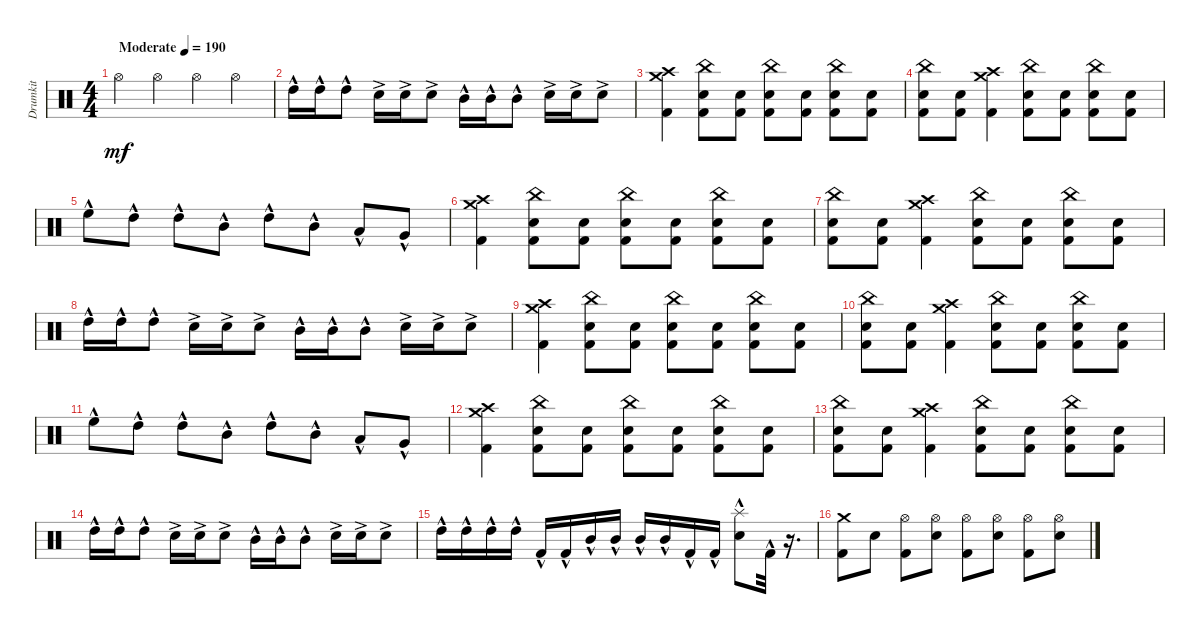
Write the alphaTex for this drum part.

\track ("Drumkit" "Drumkit") {instrument percussion}
\staff {score}
\articulation defaults
\ts (4 4)
\tempo (190 "Moderate")
\clef neutral
\ks c "Hi-Hat (open)".4{dy mf} "Hi-Hat (open)".4 "Hi-Hat (open)".4 "Hi-Hat (open)".4
|
"High Tom (hit)"{hac}.16 "High Tom (hit)"{hac}.16 "High Tom (hit)"{hac}.8 "Snare (hit) 2"{ac}.16 "Snare (hit) 2"{ac}.16 "Snare (hit) 2"{ac}.8 "Mid Tom (hit)"{hac}.16 "Mid Tom (hit)"{hac}.16 "Mid Tom (hit)"{hac}.8 "Snare (hit) 2"{ac}.16 "Snare (hit) 2"{ac}.16 "Snare (hit) 2"{ac}.8 |
("Crash high (hit)" "Crash medium (hit)" "Kick (hit) 2").4 ("China (hit)" "Snare (hit) 2" "Kick (hit) 2").8 ("Snare (hit) 2" "Kick (hit) 2").8 ("China (hit)" "Snare (hit) 2" "Kick (hit) 2").8 ("Snare (hit) 2" "Kick (hit) 2").8 ("China (hit)" "Snare (hit) 2" "Kick (hit) 2").8 ("Snare (hit) 2" "Kick (hit) 2").8 |
("China (hit)" "Snare (hit) 2" "Kick (hit) 2").8 ("Snare (hit) 2" "Kick (hit) 2").8 ("Crash high (hit)" "Crash medium (hit)" "Kick (hit) 2").4 ("China (hit)" "Snare (hit) 2" "Kick (hit) 2").8 ("Snare (hit) 2" "Kick (hit) 2").8 ("China (hit)" "Snare (hit) 2" "Kick (hit) 2").8 ("Snare (hit) 2" "Kick (hit) 2").8 |
"High Floor Tom (hit)"{hac}.8 "High Tom (hit)"{hac}.8 "High Tom (hit)"{hac}.8 "Mid Tom (hit)"{hac}.8 "High Tom (hit)"{hac}.8 "Mid Tom (hit)"{hac}.8 "Low Tom (hit)"{hac}.8 "Very Low Tom (hit)"{hac}.8 |
("Crash high (hit)" "Crash medium (hit)" "Kick (hit) 2").4 ("China (hit)" "Snare (hit) 2" "Kick (hit) 2").8 ("Snare (hit) 2" "Kick (hit) 2").8 ("China (hit)" "Snare (hit) 2" "Kick (hit) 2").8 ("Snare (hit) 2" "Kick (hit) 2").8 ("China (hit)" "Snare (hit) 2" "Kick (hit) 2").8 ("Snare (hit) 2" "Kick (hit) 2").8 |
("China (hit)" "Snare (hit) 2" "Kick (hit) 2").8 ("Snare (hit) 2" "Kick (hit) 2").8 ("Crash high (hit)" "Crash medium (hit)" "Kick (hit) 2").4 ("China (hit)" "Snare (hit) 2" "Kick (hit) 2").8 ("Snare (hit) 2" "Kick (hit) 2").8 ("China (hit)" "Snare (hit) 2" "Kick (hit) 2").8 ("Snare (hit) 2" "Kick (hit) 2").8 |
"High Tom (hit)"{hac}.16 "High Tom (hit)"{hac}.16 "High Tom (hit)"{hac}.8 "Snare (hit) 2"{ac}.16 "Snare (hit) 2"{ac}.16 "Snare (hit) 2"{ac}.8 "Mid Tom (hit)"{hac}.16 "Mid Tom (hit)"{hac}.16 "Mid Tom (hit)"{hac}.8 "Snare (hit) 2"{ac}.16 "Snare (hit) 2"{ac}.16 "Snare (hit) 2"{ac}.8 |
("Crash high (hit)" "Crash medium (hit)" "Kick (hit) 2").4 ("China (hit)" "Snare (hit) 2" "Kick (hit) 2").8 ("Snare (hit) 2" "Kick (hit) 2").8 ("China (hit)" "Snare (hit) 2" "Kick (hit) 2").8 ("Snare (hit) 2" "Kick (hit) 2").8 ("China (hit)" "Snare (hit) 2" "Kick (hit) 2").8 ("Snare (hit) 2" "Kick (hit) 2").8 |
("China (hit)" "Snare (hit) 2" "Kick (hit) 2").8 ("Snare (hit) 2" "Kick (hit) 2").8 ("Crash high (hit)" "Crash medium (hit)" "Kick (hit) 2").4 ("China (hit)" "Snare (hit) 2" "Kick (hit) 2").8 ("Snare (hit) 2" "Kick (hit) 2").8 ("China (hit)" "Snare (hit) 2" "Kick (hit) 2").8 ("Snare (hit) 2" "Kick (hit) 2").8 |
"High Floor Tom (hit)"{hac}.8 "High Tom (hit)"{hac}.8 "High Tom (hit)"{hac}.8 "Mid Tom (hit)"{hac}.8 "High Tom (hit)"{hac}.8 "Mid Tom (hit)"{hac}.8 "Low Tom (hit)"{hac}.8 "Very Low Tom (hit)"{hac}.8 |
("Crash high (hit)" "Crash medium (hit)" "Kick (hit) 2").4 ("China (hit)" "Snare (hit) 2" "Kick (hit) 2").8 ("Snare (hit) 2" "Kick (hit) 2").8 ("China (hit)" "Snare (hit) 2" "Kick (hit) 2").8 ("Snare (hit) 2" "Kick (hit) 2").8 ("China (hit)" "Snare (hit) 2" "Kick (hit) 2").8 ("Snare (hit) 2" "Kick (hit) 2").8 |
("China (hit)" "Snare (hit) 2" "Kick (hit) 2").8 ("Snare (hit) 2" "Kick (hit) 2").8 ("Crash high (hit)" "Crash medium (hit)" "Kick (hit) 2").4 ("China (hit)" "Snare (hit) 2" "Kick (hit) 2").8 ("Snare (hit) 2" "Kick (hit) 2").8 ("China (hit)" "Snare (hit) 2" "Kick (hit) 2").8 ("Snare (hit) 2" "Kick (hit) 2").8 |
"High Tom (hit)"{hac}.16 "High Tom (hit)"{hac}.16 "High Tom (hit)"{hac}.8 "Snare (hit) 2"{ac}.16 "Snare (hit) 2"{ac}.16 "Snare (hit) 2"{ac}.8 "Mid Tom (hit)"{hac}.16 "Mid Tom (hit)"{hac}.16 "Mid Tom (hit)"{hac}.8 "Snare (hit) 2"{ac}.16 "Snare (hit) 2"{ac}.16 "Snare (hit) 2"{ac}.8 |
"High Tom (hit)"{hac}.16 "High Tom (hit)"{hac}.16 "High Tom (hit)"{hac}.16 "High Tom (hit)"{hac}.16 "Kick (hit) 2"{hac}.16 "Kick (hit) 2"{hac}.16 "Mid Tom (hit)"{hac}.16 "Mid Tom (hit)"{hac}.16 "Mid Tom (hit)"{hac}.16 "Mid Tom (hit)"{hac}.16 "Kick (hit) 2"{hac}.16 "Kick (hit) 2"{hac}.16 ("Splash (hit)"{hac} "Snare (hit) 2"{hac}).8 "Kick (hit) 2"{hac}.32 r.16{d} |
("Crash medium (hit)" "Kick (hit) 2").8 "Snare (hit) 2".8 ("Hi-Hat (open)" "Kick (hit) 2").8 ("Hi-Hat (open)" "Snare (hit) 2").8 ("Hi-Hat (open)" "Kick (hit) 2").8 ("Hi-Hat (open)" "Snare (hit) 2").8 ("Hi-Hat (open)" "Kick (hit) 2").8 ("Hi-Hat (open)" "Snare (hit) 2").8
